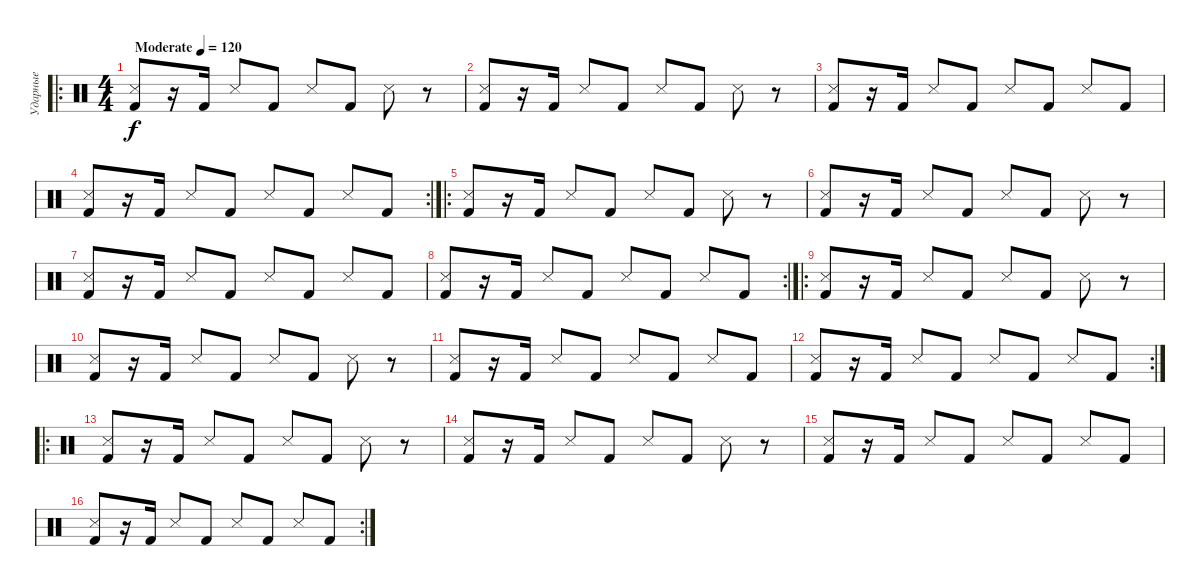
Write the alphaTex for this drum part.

\track ("Ударные" "Ударные") {instrument percussion}
\staff {score}
\articulation defaults
\ro
\ts (4 4)
\tempo (120 "Moderate")
\clef neutral
\ks c
("Snare (side stick) 3" "Kick (hit) 2").8{dy f} r.16 "Kick (hit) 2".16 "Snare (side stick) 3".8 "Kick (hit) 2".8 "Snare (side stick) 3".8 "Kick (hit) 2".8 "Snare (side stick) 3".8 r.8 |
("Snare (side stick) 3" "Kick (hit) 2").8 r.16 "Kick (hit) 2".16 "Snare (side stick) 3".8 "Kick (hit) 2".8 "Snare (side stick) 3".8 "Kick (hit) 2".8 "Snare (side stick) 3".8 r.8 |
("Snare (side stick) 3" "Kick (hit) 2").8 r.16 "Kick (hit) 2".16 "Snare (side stick) 3".8 "Kick (hit) 2".8 "Snare (side stick) 3".8 "Kick (hit) 2".8 "Snare (side stick) 3".8 "Kick (hit) 2".8 |
\rc 2
("Snare (side stick) 3" "Kick (hit) 2").8 r.16 "Kick (hit) 2".16 "Snare (side stick) 3".8 "Kick (hit) 2".8 "Snare (side stick) 3".8 "Kick (hit) 2".8 "Snare (side stick) 3".8 "Kick (hit) 2".8 |
\ro
("Snare (side stick) 3" "Kick (hit) 2").8 r.16 "Kick (hit) 2".16 "Snare (side stick) 3".8 "Kick (hit) 2".8 "Snare (side stick) 3".8 "Kick (hit) 2".8 "Snare (side stick) 3".8 r.8 |
("Snare (side stick) 3" "Kick (hit) 2").8 r.16 "Kick (hit) 2".16 "Snare (side stick) 3".8 "Kick (hit) 2".8 "Snare (side stick) 3".8 "Kick (hit) 2".8 "Snare (side stick) 3".8 r.8 |
("Snare (side stick) 3" "Kick (hit) 2").8 r.16 "Kick (hit) 2".16 "Snare (side stick) 3".8 "Kick (hit) 2".8 "Snare (side stick) 3".8 "Kick (hit) 2".8 "Snare (side stick) 3".8 "Kick (hit) 2".8 |
\rc 2
("Snare (side stick) 3" "Kick (hit) 2").8 r.16 "Kick (hit) 2".16 "Snare (side stick) 3".8 "Kick (hit) 2".8 "Snare (side stick) 3".8 "Kick (hit) 2".8 "Snare (side stick) 3".8 "Kick (hit) 2".8 |
\ro
("Snare (side stick) 3" "Kick (hit) 2").8 r.16 "Kick (hit) 2".16 "Snare (side stick) 3".8 "Kick (hit) 2".8 "Snare (side stick) 3".8 "Kick (hit) 2".8 "Snare (side stick) 3".8 r.8 |
("Snare (side stick) 3" "Kick (hit) 2").8 r.16 "Kick (hit) 2".16 "Snare (side stick) 3".8 "Kick (hit) 2".8 "Snare (side stick) 3".8 "Kick (hit) 2".8 "Snare (side stick) 3".8 r.8 |
("Snare (side stick) 3" "Kick (hit) 2").8 r.16 "Kick (hit) 2".16 "Snare (side stick) 3".8 "Kick (hit) 2".8 "Snare (side stick) 3".8 "Kick (hit) 2".8 "Snare (side stick) 3".8 "Kick (hit) 2".8 |
\rc 2
("Snare (side stick) 3" "Kick (hit) 2").8 r.16 "Kick (hit) 2".16 "Snare (side stick) 3".8 "Kick (hit) 2".8 "Snare (side stick) 3".8 "Kick (hit) 2".8 "Snare (side stick) 3".8 "Kick (hit) 2".8 |
\ro
("Snare (side stick) 3" "Kick (hit) 2").8 r.16 "Kick (hit) 2".16 "Snare (side stick) 3".8 "Kick (hit) 2".8 "Snare (side stick) 3".8 "Kick (hit) 2".8 "Snare (side stick) 3".8 r.8 |
("Snare (side stick) 3" "Kick (hit) 2").8 r.16 "Kick (hit) 2".16 "Snare (side stick) 3".8 "Kick (hit) 2".8 "Snare (side stick) 3".8 "Kick (hit) 2".8 "Snare (side stick) 3".8 r.8 |
("Snare (side stick) 3" "Kick (hit) 2").8 r.16 "Kick (hit) 2".16 "Snare (side stick) 3".8 "Kick (hit) 2".8 "Snare (side stick) 3".8 "Kick (hit) 2".8 "Snare (side stick) 3".8 "Kick (hit) 2".8 |
\rc 2
("Snare (side stick) 3" "Kick (hit) 2").8 r.16 "Kick (hit) 2".16 "Snare (side stick) 3".8 "Kick (hit) 2".8 "Snare (side stick) 3".8 "Kick (hit) 2".8 "Snare (side stick) 3".8 "Kick (hit) 2".8
